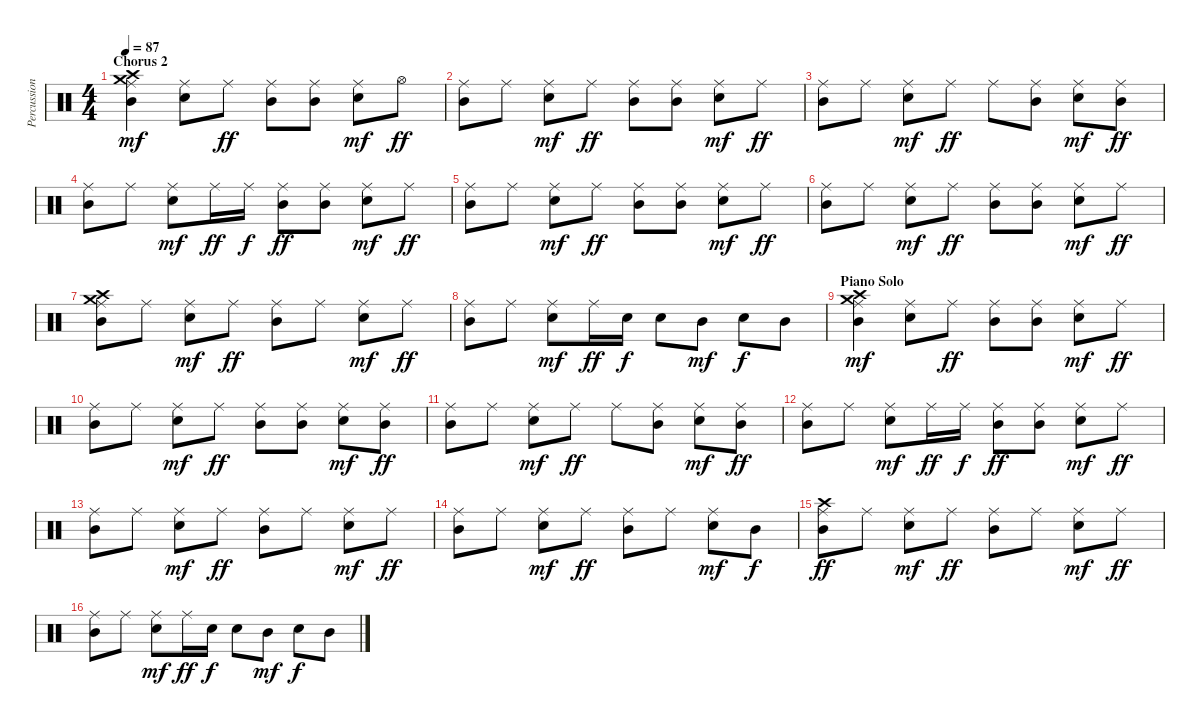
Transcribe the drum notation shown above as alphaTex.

\track ("Percussion" "Percussion") {instrument percussion}
\staff {score}
\articulation defaults
\ts (4 4)
\section ("" "Chorus 2")
\tempo 87
\clef neutral
\ks c
("Ride (middle)" "Crash high (hit)" "Crash medium (hit)" "Mid Tom (hit)").4{dy mf} ("Ride (middle)" "Snare (hit) 2").8 "Ride (middle)".8{dy ff} ("Ride (middle)" "Mid Tom (hit)").8 ("Ride (middle)" "Mid Tom (hit)").8 ("Ride (middle)" "Snare (hit) 2").8{dy mf} "Hi-Hat (open)".8{dy ff} |
("Ride (middle)" "Mid Tom (hit)").8 "Ride (middle)".8 ("Ride (middle)" "Snare (hit) 2").8{dy mf} "Ride (middle)".8{dy ff} ("Ride (middle)" "Mid Tom (hit)").8 ("Ride (middle)" "Mid Tom (hit)").8 ("Ride (middle)" "Snare (hit) 2").8{dy mf} "Ride (middle)".8{dy ff} |
("Ride (middle)" "Mid Tom (hit)").8 "Ride (middle)".8 ("Ride (middle)" "Snare (hit) 2").8{dy mf} "Ride (middle)".8{dy ff} "Ride (middle)".8 ("Ride (middle)" "Mid Tom (hit)").8 ("Ride (middle)" "Snare (hit) 2").8{dy mf} ("Ride (middle)" "Mid Tom (hit)").8{dy ff} |
("Ride (middle)" "Mid Tom (hit)").8 "Ride (middle)".8 ("Ride (middle)" "Snare (hit) 2").8{dy mf} "Ride (middle)".16{dy ff} "Ride (middle)".16{dy f} ("Ride (middle)" "Mid Tom (hit)").8{dy ff} ("Ride (middle)" "Mid Tom (hit)").8 ("Ride (middle)" "Snare (hit) 2").8{dy mf} "Ride (middle)".8{dy ff} |
("Ride (middle)" "Mid Tom (hit)").8 "Ride (middle)".8 ("Ride (middle)" "Snare (hit) 2").8{dy mf} "Ride (middle)".8{dy ff} ("Ride (middle)" "Mid Tom (hit)").8 ("Ride (middle)" "Mid Tom (hit)").8 ("Ride (middle)" "Snare (hit) 2").8{dy mf} "Ride (middle)".8{dy ff} |
("Ride (middle)" "Mid Tom (hit)").8 "Ride (middle)".8 ("Ride (middle)" "Snare (hit) 2").8{dy mf} "Ride (middle)".8{dy ff} ("Ride (middle)" "Mid Tom (hit)").8 ("Ride (middle)" "Mid Tom (hit)").8 ("Ride (middle)" "Snare (hit) 2").8{dy mf} "Ride (middle)".8{dy ff} |
("Ride (middle)" "Crash medium (hit)" "Crash high (hit)" "Mid Tom (hit)").8 "Ride (middle)".8 ("Ride (middle)" "Snare (hit) 2").8{dy mf} "Ride (middle)".8{dy ff} ("Ride (middle)" "Mid Tom (hit)").8 "Ride (middle)".8 ("Ride (middle)" "Snare (hit) 2").8{dy mf} "Ride (middle)".8{dy ff} |
("Ride (middle)" "Mid Tom (hit)").8 "Ride (middle)".8 ("Ride (middle)" "Snare (hit) 2").8{dy mf} "Ride (middle)".16{dy ff} "Snare (hit) 2".16{dy f} "Snare (hit) 2".8 "Mid Tom (hit)".8{dy mf} "Snare (hit) 2".8{dy f} "Mid Tom (hit)".8 |
\section ("" "Piano Solo")
("Ride (middle)" "Crash high (hit)" "Crash medium (hit)" "Mid Tom (hit)").4{dy mf} ("Ride (middle)" "Snare (hit) 2").8 "Ride (middle)".8{dy ff} ("Ride (middle)" "Mid Tom (hit)").8 ("Ride (middle)" "Mid Tom (hit)").8 ("Ride (middle)" "Snare (hit) 2").8{dy mf} "Ride (middle)".8{dy ff} |
("Ride (middle)" "Mid Tom (hit)").8 "Ride (middle)".8 ("Ride (middle)" "Snare (hit) 2").8{dy mf} "Ride (middle)".8{dy ff} ("Ride (middle)" "Mid Tom (hit)").8 ("Ride (middle)" "Mid Tom (hit)").8 ("Ride (middle)" "Snare (hit) 2").8{dy mf} ("Ride (middle)" "Mid Tom (hit)").8{dy ff} |
("Ride (middle)" "Mid Tom (hit)").8 "Ride (middle)".8 ("Ride (middle)" "Snare (hit) 2").8{dy mf} "Ride (middle)".8{dy ff} "Ride (middle)".8 ("Ride (middle)" "Mid Tom (hit)").8 ("Ride (middle)" "Snare (hit) 2").8{dy mf} ("Ride (middle)" "Mid Tom (hit)").8{dy ff} |
("Ride (middle)" "Mid Tom (hit)").8 "Ride (middle)".8 ("Ride (middle)" "Snare (hit) 2").8{dy mf} "Ride (middle)".16{dy ff} "Ride (middle)".16{dy f} ("Ride (middle)" "Mid Tom (hit)").8{dy ff} ("Ride (middle)" "Mid Tom (hit)").8 ("Ride (middle)" "Snare (hit) 2").8{dy mf} "Ride (middle)".8{dy ff} |
("Ride (middle)" "Mid Tom (hit)").8 "Ride (middle)".8 ("Ride (middle)" "Snare (hit) 2").8{dy mf} "Ride (middle)".8{dy ff} ("Ride (middle)" "Mid Tom (hit)").8 "Ride (middle)".8 ("Ride (middle)" "Snare (hit) 2").8{dy mf} "Ride (middle)".8{dy ff} |
("Ride (middle)" "Mid Tom (hit)").8 "Ride (middle)".8 ("Ride (middle)" "Snare (hit) 2").8{dy mf} "Ride (middle)".8{dy ff} ("Ride (middle)" "Mid Tom (hit)").8 "Ride (middle)".8 ("Ride (middle)" "Snare (hit) 2").8{dy mf} "Mid Tom (hit)".8{dy f} |
("Ride (middle)" "Crash high (hit)" "Mid Tom (hit)").8{dy ff} "Ride (middle)".8 ("Ride (middle)" "Snare (hit) 2").8{dy mf} "Ride (middle)".8{dy ff} ("Ride (middle)" "Mid Tom (hit)").8 "Ride (middle)".8 ("Ride (middle)" "Snare (hit) 2").8{dy mf} "Ride (middle)".8{dy ff} |
("Ride (middle)" "Mid Tom (hit)").8 "Ride (middle)".8 ("Ride (middle)" "Snare (hit) 2").8{dy mf} "Ride (middle)".16{dy ff} "Snare (hit) 2".16{dy f} "Snare (hit) 2".8 "Mid Tom (hit)".8{dy mf} "Snare (hit) 2".8{dy f} "Mid Tom (hit)".8
